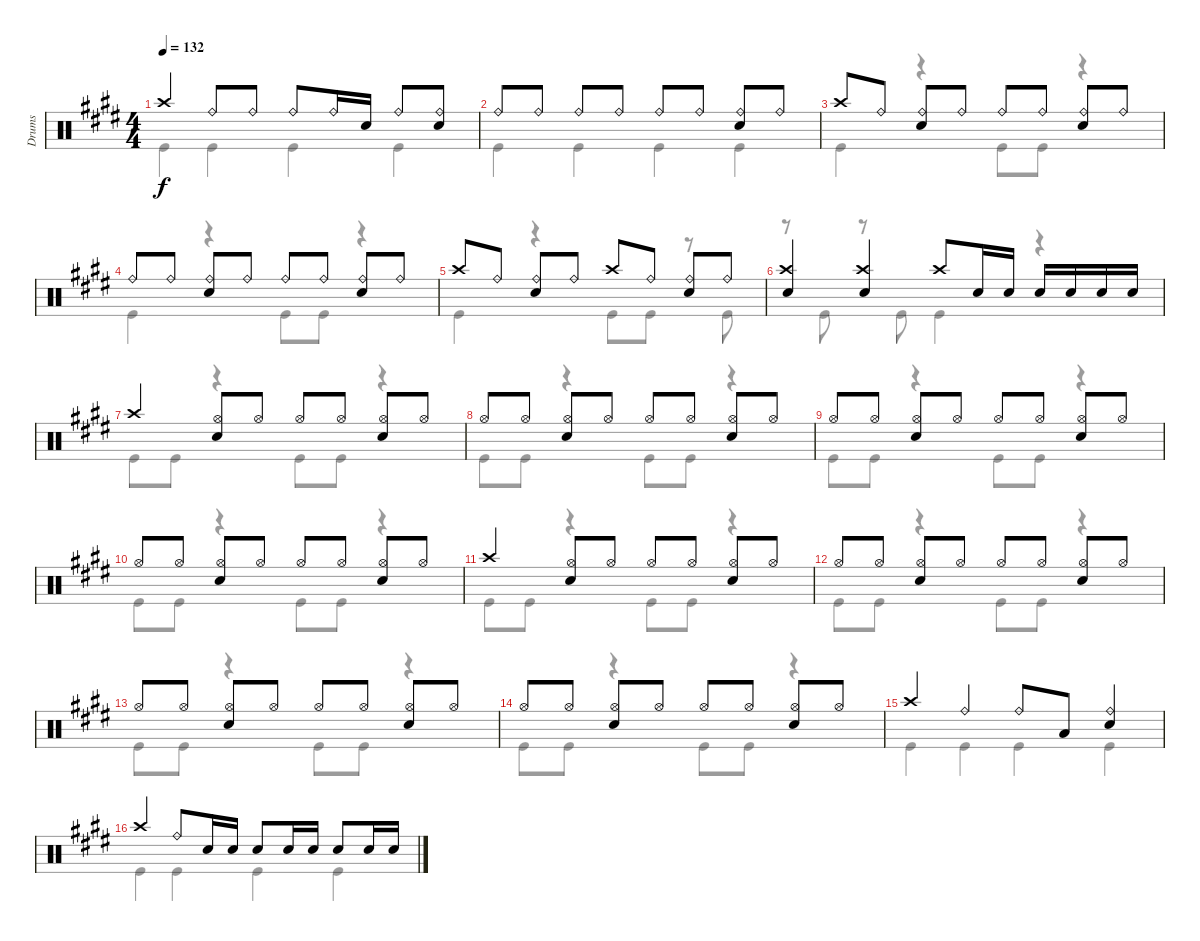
\track ("Drums" "Drums") {instrument percussion}
\staff {score}
\articulation defaults
\voice
\ts (4 4)
\tempo 132
\clef neutral
\ks e "Crash high (hit)".4{dy f} "Ride (bell)".8 "Ride (bell)".8 "Ride (bell)".8 "Ride (bell)".16 "Snare (hit) 2".16 "Ride (bell)".8
("Ride (bell)" "Snare (hit) 2").8 |
"Ride (bell)".8 "Ride (bell)".8 "Ride (bell)".8 "Ride (bell)".8 "Ride (bell)".8 "Ride (bell)".8 ("Ride (bell)" "Snare (hit) 2").8 "Ride (bell)".8 |
"Crash high (hit)".8 "Ride (bell)".8 ("Ride (bell)" "Snare (hit) 2").8 "Ride (bell)".8 "Ride (bell)".8 "Ride (bell)".8 ("Ride (bell)" "Snare (hit) 2").8 "Ride (bell)".8 |
"Ride (bell)".8 "Ride (bell)".8 ("Ride (bell)" "Snare (hit) 2").8 "Ride (bell)".8 "Ride (bell)".8 "Ride (bell)".8 ("Ride (bell)" "Snare (hit) 2").8 "Ride (bell)".8 |
"Crash high (hit)".8 "Ride (bell)".8 ("Ride (bell)" "Snare (hit) 2").8 "Ride (bell)".8 "Crash high (hit)".8 "Ride (bell)".8 ("Ride (bell)" "Snare (hit) 2").8 "Ride (bell)".8 |
("Crash high (hit)" "Snare (hit) 2").4 ("Crash high (hit)" "Snare (hit) 2").4 "Crash high (hit)".8 "Snare (hit) 2".16 "Snare (hit) 2".16 "Snare (hit) 2".16 "Snare (hit) 2".16 "Snare (hit) 2".16 "Snare (hit) 2".16 |
"Crash high (hit)".4 ("Hi-Hat (open)" "Snare (hit) 2").8 "Hi-Hat (open)".8 "Hi-Hat (open)".8 "Hi-Hat (open)".8 ("Hi-Hat (open)" "Snare (hit) 2").8 "Hi-Hat (open)".8 |
"Hi-Hat (open)".8 "Hi-Hat (open)".8 ("Hi-Hat (open)" "Snare (hit) 2").8 "Hi-Hat (open)".8 "Hi-Hat (open)".8 "Hi-Hat (open)".8 ("Hi-Hat (open)" "Snare (hit) 2").8 "Hi-Hat (open)".8 |
"Hi-Hat (open)".8 "Hi-Hat (open)".8 ("Hi-Hat (open)" "Snare (hit) 2").8 "Hi-Hat (open)".8 "Hi-Hat (open)".8 "Hi-Hat (open)".8 ("Hi-Hat (open)" "Snare (hit) 2").8 "Hi-Hat (open)".8 |
"Hi-Hat (open)".8 "Hi-Hat (open)".8 ("Hi-Hat (open)" "Snare (hit) 2").8 "Hi-Hat (open)".8 "Hi-Hat (open)".8 "Hi-Hat (open)".8 ("Hi-Hat (open)" "Snare (hit) 2").8 "Hi-Hat (open)".8 |
"Crash high (hit)".4 ("Hi-Hat (open)" "Snare (hit) 2").8 "Hi-Hat (open)".8 "Hi-Hat (open)".8 "Hi-Hat (open)".8 ("Hi-Hat (open)" "Snare (hit) 2").8 "Hi-Hat (open)".8 |
"Hi-Hat (open)".8 "Hi-Hat (open)".8 ("Hi-Hat (open)" "Snare (hit) 2").8 "Hi-Hat (open)".8 "Hi-Hat (open)".8 "Hi-Hat (open)".8 ("Hi-Hat (open)" "Snare (hit) 2").8 "Hi-Hat (open)".8 |
"Hi-Hat (open)".8 "Hi-Hat (open)".8 ("Hi-Hat (open)" "Snare (hit) 2").8 "Hi-Hat (open)".8 "Hi-Hat (open)".8 "Hi-Hat (open)".8 ("Hi-Hat (open)" "Snare (hit) 2").8 "Hi-Hat (open)".8 |
"Hi-Hat (open)".8 "Hi-Hat (open)".8 ("Hi-Hat (open)" "Snare (hit) 2").8 "Hi-Hat (open)".8 "Hi-Hat (open)".8 "Hi-Hat (open)".8 ("Hi-Hat (open)" "Snare (hit) 2").8 "Hi-Hat (open)".8 |
"Crash high (hit)".4 "Ride (bell)".4 "Ride (bell)".8 "Low Tom (hit)".8 ("Snare (hit) 2" "Ride (bell)").4 |
"Crash high (hit)".4 "Ride (bell)".8 "Snare (hit) 2".16 "Snare (hit) 2".16 "Snare (hit) 2".8 "Snare (hit) 2".16 "Snare (hit) 2".16 "Snare (hit) 2".8 "Snare (hit) 2".16 "Snare (hit) 2".16
\voice
\clef neutral
\ottava regular
\simile none
\ks e "Kick (hit)".4{dy f} "Kick (hit)".4 "Kick (hit)".4 "Kick (hit)".4
|
"Kick (hit)".4 "Kick (hit)".4 "Kick (hit)".4 "Kick (hit)".4 |
"Kick (hit)".4 r.4 "Kick (hit)".8 "Kick (hit)".8 r.4 |
"Kick (hit)".4 r.4 "Kick (hit)".8 "Kick (hit)".8 r.4 |
"Kick (hit)".4 r.4 "Kick (hit)".8 "Kick (hit)".8 r.8 "Kick (hit)".8 |
r.8 "Kick (hit)".8 r.8 "Kick (hit)".8 "Kick (hit)".4 r.4 |
"Kick (hit)".8 "Kick (hit)".8 r.4 "Kick (hit)".8 "Kick (hit)".8 r.4 |
"Kick (hit)".8 "Kick (hit)".8 r.4 "Kick (hit)".8 "Kick (hit)".8 r.4 |
"Kick (hit)".8 "Kick (hit)".8 r.4 "Kick (hit)".8 "Kick (hit)".8 r.4 |
"Kick (hit)".8 "Kick (hit)".8 r.4 "Kick (hit)".8 "Kick (hit)".8 r.4 |
"Kick (hit)".8 "Kick (hit)".8 r.4 "Kick (hit)".8 "Kick (hit)".8 r.4 |
"Kick (hit)".8 "Kick (hit)".8 r.4 "Kick (hit)".8 "Kick (hit)".8 r.4 |
"Kick (hit)".8 "Kick (hit)".8 r.4 "Kick (hit)".8 "Kick (hit)".8 r.4 |
"Kick (hit)".8 "Kick (hit)".8 r.4 "Kick (hit)".8 "Kick (hit)".8 r.4 |
"Kick (hit)".4 "Kick (hit)".4 "Kick (hit)".4 "Kick (hit)".4 |
"Kick (hit)".4 "Kick (hit)".4 "Kick (hit)".4 "Kick (hit)".4
